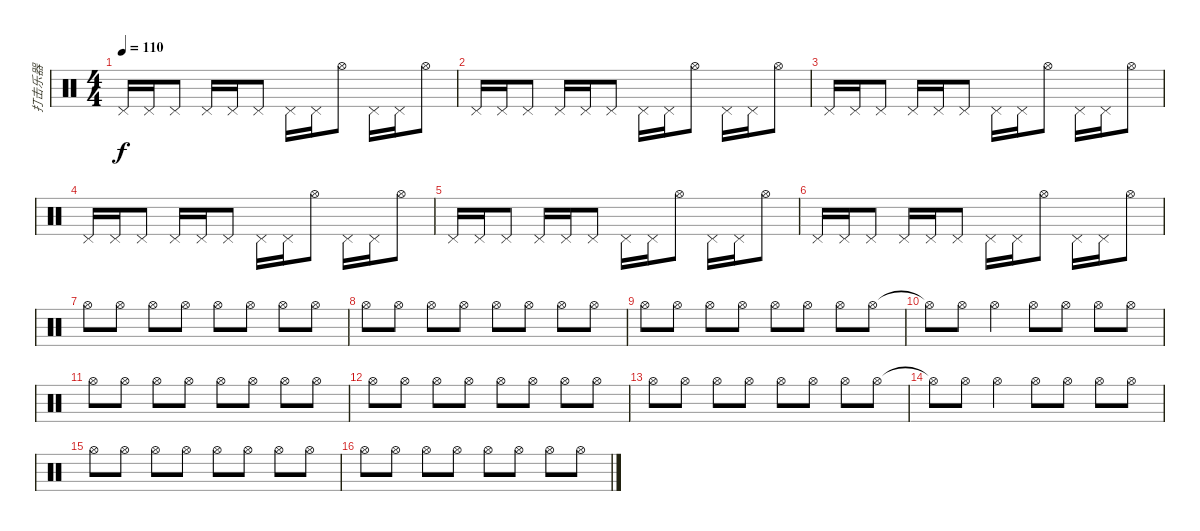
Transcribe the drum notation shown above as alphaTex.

\track ("打击乐器" "打击乐器") {instrument percussion}
\staff {score}
\articulation defaults
\ts (4 4)
\tempo 110
\clef neutral
\ks c "Pedal Hi-Hat (hit)".16{dy f} "Pedal Hi-Hat (hit)".16 "Pedal Hi-Hat (hit)".8 "Pedal Hi-Hat (hit)".16 "Pedal Hi-Hat (hit)".16 "Pedal Hi-Hat (hit)".8 "Pedal Hi-Hat (hit)".16 "Pedal Hi-Hat (hit)".16 "Hi-Hat (open)".8 "Pedal Hi-Hat (hit)".16 "Pedal Hi-Hat (hit)".16 "Hi-Hat (open)".8
|
"Pedal Hi-Hat (hit)".16 "Pedal Hi-Hat (hit)".16 "Pedal Hi-Hat (hit)".8 "Pedal Hi-Hat (hit)".16 "Pedal Hi-Hat (hit)".16 "Pedal Hi-Hat (hit)".8 "Pedal Hi-Hat (hit)".16 "Pedal Hi-Hat (hit)".16 "Hi-Hat (open)".8 "Pedal Hi-Hat (hit)".16 "Pedal Hi-Hat (hit)".16 "Hi-Hat (open)".8 |
"Pedal Hi-Hat (hit)".16 "Pedal Hi-Hat (hit)".16 "Pedal Hi-Hat (hit)".8 "Pedal Hi-Hat (hit)".16 "Pedal Hi-Hat (hit)".16 "Pedal Hi-Hat (hit)".8 "Pedal Hi-Hat (hit)".16 "Pedal Hi-Hat (hit)".16 "Hi-Hat (open)".8 "Pedal Hi-Hat (hit)".16 "Pedal Hi-Hat (hit)".16 "Hi-Hat (open)".8 |
"Pedal Hi-Hat (hit)".16 "Pedal Hi-Hat (hit)".16 "Pedal Hi-Hat (hit)".8 "Pedal Hi-Hat (hit)".16 "Pedal Hi-Hat (hit)".16 "Pedal Hi-Hat (hit)".8 "Pedal Hi-Hat (hit)".16 "Pedal Hi-Hat (hit)".16 "Hi-Hat (open)".8 "Pedal Hi-Hat (hit)".16 "Pedal Hi-Hat (hit)".16 "Hi-Hat (open)".8 |
"Pedal Hi-Hat (hit)".16 "Pedal Hi-Hat (hit)".16 "Pedal Hi-Hat (hit)".8 "Pedal Hi-Hat (hit)".16 "Pedal Hi-Hat (hit)".16 "Pedal Hi-Hat (hit)".8 "Pedal Hi-Hat (hit)".16 "Pedal Hi-Hat (hit)".16 "Hi-Hat (open)".8 "Pedal Hi-Hat (hit)".16 "Pedal Hi-Hat (hit)".16 "Hi-Hat (open)".8 |
"Pedal Hi-Hat (hit)".16 "Pedal Hi-Hat (hit)".16 "Pedal Hi-Hat (hit)".8 "Pedal Hi-Hat (hit)".16 "Pedal Hi-Hat (hit)".16 "Pedal Hi-Hat (hit)".8 "Pedal Hi-Hat (hit)".16 "Pedal Hi-Hat (hit)".16 "Hi-Hat (open)".8 "Pedal Hi-Hat (hit)".16 "Pedal Hi-Hat (hit)".16 "Hi-Hat (open)".8 |
"Hi-Hat (open)".8 "Hi-Hat (open)".8 "Hi-Hat (open)".8 "Hi-Hat (open)".8 "Hi-Hat (open)".8 "Hi-Hat (open)".8 "Hi-Hat (open)".8 "Hi-Hat (open)".8 |
"Hi-Hat (open)".8 "Hi-Hat (open)".8 "Hi-Hat (open)".8 "Hi-Hat (open)".8 "Hi-Hat (open)".8 "Hi-Hat (open)".8 "Hi-Hat (open)".8 "Hi-Hat (open)".8 |
"Hi-Hat (open)".8 "Hi-Hat (open)".8 "Hi-Hat (open)".8 "Hi-Hat (open)".8 "Hi-Hat (open)".8 "Hi-Hat (open)".8 "Hi-Hat (open)".8 "Hi-Hat (open)".8 |
"Hi-Hat (open)"{t}.8 "Hi-Hat (open)".8 "Hi-Hat (open)".4 "Hi-Hat (open)".8 "Hi-Hat (open)".8 "Hi-Hat (open)".8 "Hi-Hat (open)".8 |
"Hi-Hat (open)".8 "Hi-Hat (open)".8 "Hi-Hat (open)".8 "Hi-Hat (open)".8 "Hi-Hat (open)".8 "Hi-Hat (open)".8 "Hi-Hat (open)".8 "Hi-Hat (open)".8 |
"Hi-Hat (open)".8 "Hi-Hat (open)".8 "Hi-Hat (open)".8 "Hi-Hat (open)".8 "Hi-Hat (open)".8 "Hi-Hat (open)".8 "Hi-Hat (open)".8 "Hi-Hat (open)".8 |
"Hi-Hat (open)".8 "Hi-Hat (open)".8 "Hi-Hat (open)".8 "Hi-Hat (open)".8 "Hi-Hat (open)".8 "Hi-Hat (open)".8 "Hi-Hat (open)".8 "Hi-Hat (open)".8 |
"Hi-Hat (open)"{t}.8 "Hi-Hat (open)".8 "Hi-Hat (open)".4 "Hi-Hat (open)".8 "Hi-Hat (open)".8 "Hi-Hat (open)".8 "Hi-Hat (open)".8 |
"Hi-Hat (open)".8 "Hi-Hat (open)".8 "Hi-Hat (open)".8 "Hi-Hat (open)".8 "Hi-Hat (open)".8 "Hi-Hat (open)".8 "Hi-Hat (open)".8 "Hi-Hat (open)".8 |
"Hi-Hat (open)".8 "Hi-Hat (open)".8 "Hi-Hat (open)".8 "Hi-Hat (open)".8 "Hi-Hat (open)".8 "Hi-Hat (open)".8 "Hi-Hat (open)".8 "Hi-Hat (open)".8
